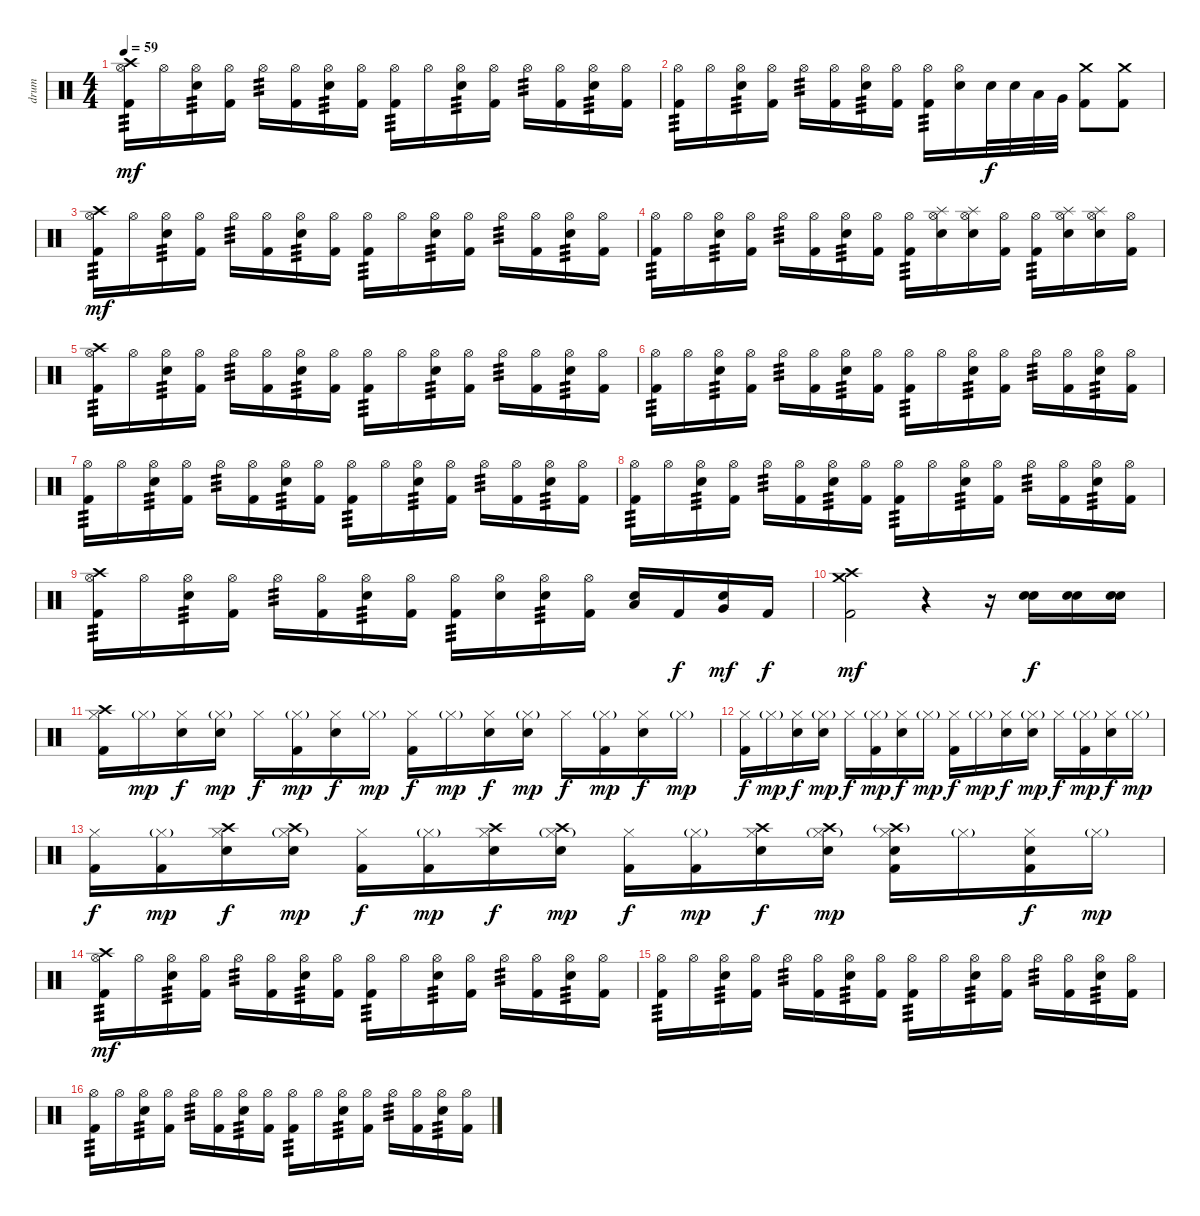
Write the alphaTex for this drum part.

\track ("drum" "drum") {instrument percussion}
\staff {score}
\articulation defaults
\ts (4 4)
\tempo 59
\clef neutral
\ks c
("Crash high (hit)" "Hi-Hat (open)" "Kick (hit) 2").16{tp 3 dy mf} "Hi-Hat (open)".16 ("Hi-Hat (open)" "Electric Snare (hit)").16{tp 3} ("Hi-Hat (open)" "Kick (hit) 2").16 "Hi-Hat (open)".16{tp 3} ("Hi-Hat (open)" "Kick (hit) 2").16 ("Hi-Hat (open)" "Electric Snare (hit)").16{tp 3} ("Hi-Hat (open)" "Kick (hit) 2").16 ("Hi-Hat (open)" "Kick (hit) 2").16{tp 3} "Hi-Hat (open)".16 ("Hi-Hat (open)" "Electric Snare (hit)").16{tp 3} ("Hi-Hat (open)" "Kick (hit) 2").16 "Hi-Hat (open)".16{tp 3} ("Hi-Hat (open)" "Kick (hit) 2").16 ("Hi-Hat (open)" "Electric Snare (hit)").16{tp 3} ("Hi-Hat (open)" "Kick (hit) 2").16 |
("Hi-Hat (open)" "Kick (hit) 2").16{tp 3} "Hi-Hat (open)".16 ("Hi-Hat (open)" "Electric Snare (hit)").16{tp 3} ("Hi-Hat (open)" "Kick (hit) 2").16 "Hi-Hat (open)".16{tp 3} ("Hi-Hat (open)" "Kick (hit) 2").16 ("Hi-Hat (open)" "Electric Snare (hit)").16{tp 3} ("Hi-Hat (open)" "Kick (hit) 2").16 ("Hi-Hat (open)" "Kick (hit) 2").16{tp 3} ("Hi-Hat (open)" "Electric Snare (hit)").16 "Electric Snare (hit)".32{dy f} "Electric Snare (hit)".32 "Low Tom (hit)".32 "Very Low Tom (hit)".32 ("Crash medium (hit)" "Kick (hit) 2").8 ("Crash medium (hit)" "Kick (hit) 2").8 |
("Crash high (hit)" "Hi-Hat (open)" "Kick (hit) 2").16{tp 3 dy mf} "Hi-Hat (open)".16 ("Hi-Hat (open)" "Electric Snare (hit)").16{tp 3} ("Hi-Hat (open)" "Kick (hit) 2").16 "Hi-Hat (open)".16{tp 3} ("Hi-Hat (open)" "Kick (hit) 2").16 ("Hi-Hat (open)" "Electric Snare (hit)").16{tp 3} ("Hi-Hat (open)" "Kick (hit) 2").16 ("Hi-Hat (open)" "Kick (hit) 2").16{tp 3} "Hi-Hat (open)".16 ("Hi-Hat (open)" "Electric Snare (hit)").16{tp 3} ("Hi-Hat (open)" "Kick (hit) 2").16 "Hi-Hat (open)".16{tp 3} ("Hi-Hat (open)" "Kick (hit) 2").16 ("Hi-Hat (open)" "Electric Snare (hit)").16{tp 3} ("Hi-Hat (open)" "Kick (hit) 2").16 |
("Hi-Hat (open)" "Kick (hit) 2").16{tp 3} "Hi-Hat (open)".16 ("Hi-Hat (open)" "Electric Snare (hit)").16{tp 3} ("Hi-Hat (open)" "Kick (hit) 2").16 "Hi-Hat (open)".16{tp 3} ("Hi-Hat (open)" "Kick (hit) 2").16 ("Hi-Hat (open)" "Electric Snare (hit)").16{tp 3} ("Hi-Hat (open)" "Kick (hit) 2").16 ("Hi-Hat (open)" "Kick (hit) 2").16{tp 3} ("Splash (hit)" "Hi-Hat (open)" "Electric Snare (hit)").16 ("Splash (hit)" "Hi-Hat (open)" "Electric Snare (hit)").16 ("Hi-Hat (open)" "Kick (hit) 2").16 ("Hi-Hat (open)" "Kick (hit) 2").16{tp 3} ("Splash (hit)" "Hi-Hat (open)" "Electric Snare (hit)").16 ("Splash (hit)" "Hi-Hat (open)" "Electric Snare (hit)").16 ("Hi-Hat (open)" "Kick (hit) 2").16 |
("Crash high (hit)" "Hi-Hat (open)" "Kick (hit) 2").16{tp 3} "Hi-Hat (open)".16 ("Hi-Hat (open)" "Electric Snare (hit)").16{tp 3} ("Hi-Hat (open)" "Kick (hit) 2").16 "Hi-Hat (open)".16{tp 3} ("Hi-Hat (open)" "Kick (hit) 2").16 ("Hi-Hat (open)" "Electric Snare (hit)").16{tp 3} ("Hi-Hat (open)" "Kick (hit) 2").16 ("Hi-Hat (open)" "Kick (hit) 2").16{tp 3} "Hi-Hat (open)".16 ("Hi-Hat (open)" "Electric Snare (hit)").16{tp 3} ("Hi-Hat (open)" "Kick (hit) 2").16 "Hi-Hat (open)".16{tp 3} ("Hi-Hat (open)" "Kick (hit) 2").16 ("Hi-Hat (open)" "Electric Snare (hit)").16{tp 3} ("Hi-Hat (open)" "Kick (hit) 2").16 |
("Hi-Hat (open)" "Kick (hit) 2").16{tp 3} "Hi-Hat (open)".16 ("Hi-Hat (open)" "Electric Snare (hit)").16{tp 3} ("Hi-Hat (open)" "Kick (hit) 2").16 "Hi-Hat (open)".16{tp 3} ("Hi-Hat (open)" "Kick (hit) 2").16 ("Hi-Hat (open)" "Electric Snare (hit)").16{tp 3} ("Hi-Hat (open)" "Kick (hit) 2").16 ("Hi-Hat (open)" "Kick (hit) 2").16{tp 3} "Hi-Hat (open)".16 ("Hi-Hat (open)" "Electric Snare (hit)").16{tp 3} ("Hi-Hat (open)" "Kick (hit) 2").16 "Hi-Hat (open)".16{tp 3} ("Hi-Hat (open)" "Kick (hit) 2").16 ("Hi-Hat (open)" "Electric Snare (hit)").16{tp 3} ("Hi-Hat (open)" "Kick (hit) 2").16 |
("Hi-Hat (open)" "Kick (hit) 2").16{tp 3} "Hi-Hat (open)".16 ("Hi-Hat (open)" "Electric Snare (hit)").16{tp 3} ("Hi-Hat (open)" "Kick (hit) 2").16 "Hi-Hat (open)".16{tp 3} ("Hi-Hat (open)" "Kick (hit) 2").16 ("Hi-Hat (open)" "Electric Snare (hit)").16{tp 3} ("Hi-Hat (open)" "Kick (hit) 2").16 ("Hi-Hat (open)" "Kick (hit) 2").16{tp 3} "Hi-Hat (open)".16 ("Hi-Hat (open)" "Electric Snare (hit)").16{tp 3} ("Hi-Hat (open)" "Kick (hit) 2").16 "Hi-Hat (open)".16{tp 3} ("Hi-Hat (open)" "Kick (hit) 2").16 ("Hi-Hat (open)" "Electric Snare (hit)").16{tp 3} ("Hi-Hat (open)" "Kick (hit) 2").16 |
("Hi-Hat (open)" "Kick (hit) 2").16{tp 3} "Hi-Hat (open)".16 ("Hi-Hat (open)" "Electric Snare (hit)").16{tp 3} ("Hi-Hat (open)" "Kick (hit) 2").16 "Hi-Hat (open)".16{tp 3} ("Hi-Hat (open)" "Kick (hit) 2").16 ("Hi-Hat (open)" "Electric Snare (hit)").16{tp 3} ("Hi-Hat (open)" "Kick (hit) 2").16 ("Hi-Hat (open)" "Kick (hit) 2").16{tp 3} "Hi-Hat (open)".16 ("Hi-Hat (open)" "Electric Snare (hit)").16{tp 3} ("Hi-Hat (open)" "Kick (hit) 2").16 "Hi-Hat (open)".16{tp 3} ("Hi-Hat (open)" "Kick (hit) 2").16 ("Hi-Hat (open)" "Electric Snare (hit)").16{tp 3} ("Hi-Hat (open)" "Kick (hit) 2").16 |
("Crash high (hit)" "Hi-Hat (open)" "Kick (hit) 2").16{tp 3} "Hi-Hat (open)".16 ("Hi-Hat (open)" "Electric Snare (hit)").16{tp 3} ("Hi-Hat (open)" "Kick (hit) 2").16 "Hi-Hat (open)".16{tp 3} ("Hi-Hat (open)" "Kick (hit) 2").16 ("Hi-Hat (open)" "Electric Snare (hit)").16{tp 3} ("Hi-Hat (open)" "Kick (hit) 2").16 ("Hi-Hat (open)" "Kick (hit) 2").16{tp 3} ("Hi-Hat (open)" "Electric Snare (hit)").16 ("Hi-Hat (open)" "Electric Snare (hit)").16{tp 3} ("Hi-Hat (open)" "Kick (hit) 2").16 ("Low Tom (hit)" "Electric Snare (hit)").16 "Kick (hit) 2".16{dy f} ("Very Low Tom (hit)" "Electric Snare (hit)").16{dy mf} "Kick (hit) 2".16{dy f} |
("Crash high (hit)" "Crash medium (hit)" "Kick (hit) 2").2{dy mf} r.4 r.16 ("Snare (hit) 2" "Electric Snare (hit)").16{dy f} ("Snare (hit) 2" "Electric Snare (hit)").16 ("Snare (hit) 2" "Electric Snare (hit)").16 |
("Crash high (hit)" "Hi-Hat (closed)" "Kick (hit) 2").16 "Hi-Hat (closed)"{g}.16{dy mp} ("Hi-Hat (closed)" "Electric Snare (hit)").16{dy f} ("Hi-Hat (closed)"{g} "Electric Snare (hit)").16{dy mp} "Hi-Hat (closed)".16{dy f} ("Hi-Hat (closed)"{g} "Kick (hit) 2").16{dy mp} ("Hi-Hat (closed)" "Electric Snare (hit)").16{dy f} "Hi-Hat (closed)"{g}.16{dy mp} ("Hi-Hat (closed)" "Kick (hit) 2").16{dy f} "Hi-Hat (closed)"{g}.16{dy mp} ("Hi-Hat (closed)" "Electric Snare (hit)").16{dy f} ("Hi-Hat (closed)"{g} "Electric Snare (hit)").16{dy mp} "Hi-Hat (closed)".16{dy f} ("Hi-Hat (closed)"{g} "Kick (hit) 2").16{dy mp} ("Hi-Hat (closed)" "Electric Snare (hit)").16{dy f} "Hi-Hat (closed)"{g}.16{dy mp} |
("Hi-Hat (closed)" "Kick (hit) 2").16{dy f} "Hi-Hat (closed)"{g}.16{dy mp} ("Hi-Hat (closed)" "Electric Snare (hit)").16{dy f} ("Hi-Hat (closed)"{g} "Electric Snare (hit)").16{dy mp} "Hi-Hat (closed)".16{dy f} ("Hi-Hat (closed)"{g} "Kick (hit) 2").16{dy mp} ("Hi-Hat (closed)" "Electric Snare (hit)").16{dy f} "Hi-Hat (closed)"{g}.16{dy mp} ("Hi-Hat (closed)" "Kick (hit) 2").16{dy f} "Hi-Hat (closed)"{g}.16{dy mp} ("Hi-Hat (closed)" "Electric Snare (hit)").16{dy f} ("Hi-Hat (closed)"{g} "Electric Snare (hit)").16{dy mp} "Hi-Hat (closed)".16{dy f} ("Hi-Hat (closed)"{g} "Kick (hit) 2").16{dy mp} ("Hi-Hat (closed)" "Electric Snare (hit)").16{dy f} "Hi-Hat (closed)"{g}.16{dy mp} |
("Hi-Hat (closed)" "Kick (hit) 2").16{dy f} ("Hi-Hat (closed)"{g} "Kick (hit) 2").16{dy mp} ("Crash high (hit)" "Hi-Hat (closed)" "Electric Snare (hit)").16{dy f} ("Crash high (hit)" "Hi-Hat (closed)"{g} "Electric Snare (hit)").16{dy mp} ("Hi-Hat (closed)" "Kick (hit) 2").16{dy f} ("Hi-Hat (closed)"{g} "Kick (hit) 2").16{dy mp} ("Crash high (hit)" "Hi-Hat (closed)" "Electric Snare (hit)").16{dy f} ("Crash high (hit)" "Hi-Hat (closed)"{g} "Electric Snare (hit)").16{dy mp} ("Hi-Hat (closed)" "Kick (hit) 2").16{dy f} ("Hi-Hat (closed)"{g} "Kick (hit) 2").16{dy mp} ("Crash high (hit)" "Hi-Hat (closed)" "Electric Snare (hit)").16{dy f} ("Crash high (hit)" "Hi-Hat (closed)"{g} "Electric Snare (hit)").16{dy mp} ("Crash high (hit)"{g} "Hi-Hat (closed)" "Electric Snare (hit)" "Kick (hit) 2").16 "Hi-Hat (closed)"{g}.16 ("Hi-Hat (closed)" "Electric Snare (hit)" "Kick (hit) 2").16{dy f} "Hi-Hat (closed)"{g}.16{dy mp} |
("Crash high (hit)" "Hi-Hat (open)" "Kick (hit) 2").16{tp 3 dy mf} "Hi-Hat (open)".16 ("Hi-Hat (open)" "Electric Snare (hit)").16{tp 3} ("Hi-Hat (open)" "Kick (hit) 2").16 "Hi-Hat (open)".16{tp 3} ("Hi-Hat (open)" "Kick (hit) 2").16 ("Hi-Hat (open)" "Electric Snare (hit)").16{tp 3} ("Hi-Hat (open)" "Kick (hit) 2").16 ("Hi-Hat (open)" "Kick (hit) 2").16{tp 3} "Hi-Hat (open)".16 ("Hi-Hat (open)" "Electric Snare (hit)").16{tp 3} ("Hi-Hat (open)" "Kick (hit) 2").16 "Hi-Hat (open)".16{tp 3} ("Hi-Hat (open)" "Kick (hit) 2").16 ("Hi-Hat (open)" "Electric Snare (hit)").16{tp 3} ("Hi-Hat (open)" "Kick (hit) 2").16 |
("Hi-Hat (open)" "Kick (hit) 2").16{tp 3} "Hi-Hat (open)".16 ("Hi-Hat (open)" "Electric Snare (hit)").16{tp 3} ("Hi-Hat (open)" "Kick (hit) 2").16 "Hi-Hat (open)".16{tp 3} ("Hi-Hat (open)" "Kick (hit) 2").16 ("Hi-Hat (open)" "Electric Snare (hit)").16{tp 3} ("Hi-Hat (open)" "Kick (hit) 2").16 ("Hi-Hat (open)" "Kick (hit) 2").16{tp 3} "Hi-Hat (open)".16 ("Hi-Hat (open)" "Electric Snare (hit)").16{tp 3} ("Hi-Hat (open)" "Kick (hit) 2").16 "Hi-Hat (open)".16{tp 3} ("Hi-Hat (open)" "Kick (hit) 2").16 ("Hi-Hat (open)" "Electric Snare (hit)").16{tp 3} ("Hi-Hat (open)" "Kick (hit) 2").16 |
("Hi-Hat (open)" "Kick (hit) 2").16{tp 3} "Hi-Hat (open)".16 ("Hi-Hat (open)" "Electric Snare (hit)").16{tp 3} ("Hi-Hat (open)" "Kick (hit) 2").16 "Hi-Hat (open)".16{tp 3} ("Hi-Hat (open)" "Kick (hit) 2").16 ("Hi-Hat (open)" "Electric Snare (hit)").16{tp 3} ("Hi-Hat (open)" "Kick (hit) 2").16 ("Hi-Hat (open)" "Kick (hit) 2").16{tp 3} "Hi-Hat (open)".16 ("Hi-Hat (open)" "Electric Snare (hit)").16{tp 3} ("Hi-Hat (open)" "Kick (hit) 2").16 "Hi-Hat (open)".16{tp 3} ("Hi-Hat (open)" "Kick (hit) 2").16 ("Hi-Hat (open)" "Electric Snare (hit)").16{tp 3} ("Hi-Hat (open)" "Kick (hit) 2").16
